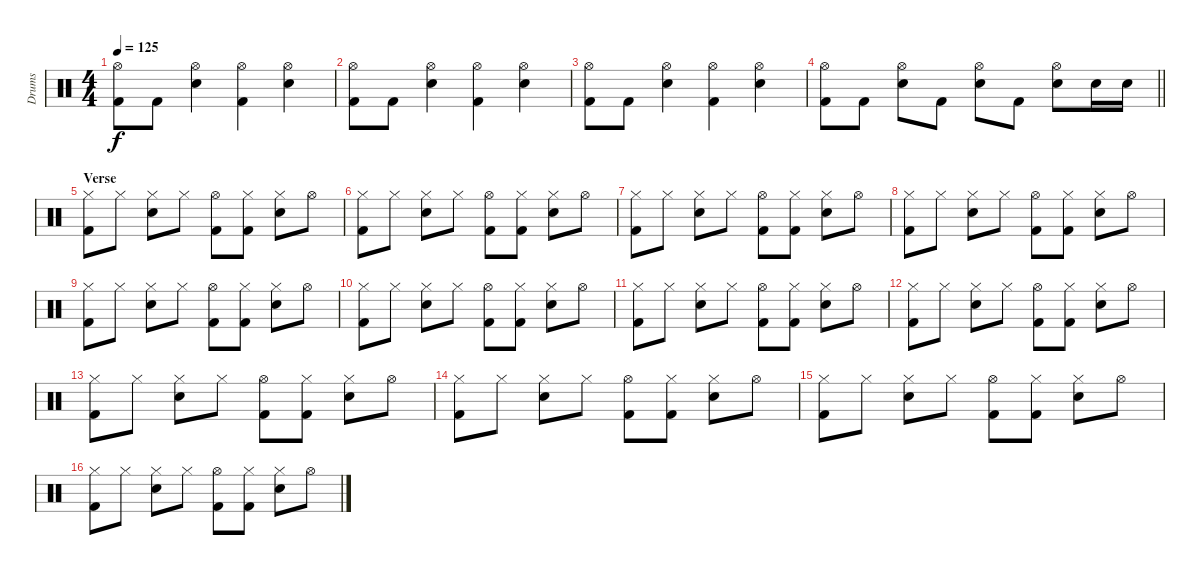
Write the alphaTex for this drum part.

\track ("Drums" "Drums") {instrument percussion}
\staff {score}
\articulation defaults
\ts (4 4)
\tempo 125
\clef neutral
\ks c
("Hi-Hat (open)" "Kick (hit) 2").8{dy f} "Kick (hit) 2".8 ("Hi-Hat (open)" "Electric Snare (hit)").4 ("Hi-Hat (open)" "Kick (hit) 2").4 ("Hi-Hat (open)" "Electric Snare (hit)").4 |
("Hi-Hat (open)" "Kick (hit) 2").8 "Kick (hit) 2".8 ("Hi-Hat (open)" "Electric Snare (hit)").4 ("Hi-Hat (open)" "Kick (hit) 2").4 ("Hi-Hat (open)" "Electric Snare (hit)").4 |
("Hi-Hat (open)" "Kick (hit) 2").8 "Kick (hit) 2".8 ("Hi-Hat (open)" "Electric Snare (hit)").4 ("Hi-Hat (open)" "Kick (hit) 2").4 ("Hi-Hat (open)" "Electric Snare (hit)").4 |
\barLineRight lightlight
("Hi-Hat (open)" "Kick (hit) 2").8 "Kick (hit) 2".8 ("Hi-Hat (open)" "Electric Snare (hit)").8 "Kick (hit) 2".8 ("Hi-Hat (open)" "Electric Snare (hit)").8 "Kick (hit) 2".8 ("Hi-Hat (open)" "Electric Snare (hit)").8 "Electric Snare (hit)".16 "Electric Snare (hit)".16 |
\section ("" "Verse")
("Hi-Hat (closed)" "Kick (hit) 2").8 "Hi-Hat (closed)".8 ("Hi-Hat (closed)" "Electric Snare (hit)").8 "Hi-Hat (closed)".8 ("Hi-Hat (open)" "Kick (hit) 2").8 ("Hi-Hat (closed)" "Kick (hit) 2").8 ("Hi-Hat (closed)" "Electric Snare (hit)").8 "Hi-Hat (open)".8 |
("Hi-Hat (closed)" "Kick (hit) 2").8 "Hi-Hat (closed)".8 ("Hi-Hat (closed)" "Electric Snare (hit)").8 "Hi-Hat (closed)".8 ("Hi-Hat (open)" "Kick (hit) 2").8 ("Hi-Hat (closed)" "Kick (hit) 2").8 ("Hi-Hat (closed)" "Electric Snare (hit)").8 "Hi-Hat (open)".8 |
("Hi-Hat (closed)" "Kick (hit) 2").8 "Hi-Hat (closed)".8 ("Hi-Hat (closed)" "Electric Snare (hit)").8 "Hi-Hat (closed)".8 ("Hi-Hat (open)" "Kick (hit) 2").8 ("Hi-Hat (closed)" "Kick (hit) 2").8 ("Hi-Hat (closed)" "Electric Snare (hit)").8 "Hi-Hat (open)".8 |
("Hi-Hat (closed)" "Kick (hit) 2").8 "Hi-Hat (closed)".8 ("Hi-Hat (closed)" "Electric Snare (hit)").8 "Hi-Hat (closed)".8 ("Hi-Hat (open)" "Kick (hit) 2").8 ("Hi-Hat (closed)" "Kick (hit) 2").8 ("Hi-Hat (closed)" "Electric Snare (hit)").8 "Hi-Hat (open)".8 |
("Hi-Hat (closed)" "Kick (hit) 2").8 "Hi-Hat (closed)".8 ("Hi-Hat (closed)" "Electric Snare (hit)").8 "Hi-Hat (closed)".8 ("Hi-Hat (open)" "Kick (hit) 2").8 ("Hi-Hat (closed)" "Kick (hit) 2").8 ("Hi-Hat (closed)" "Electric Snare (hit)").8 "Hi-Hat (open)".8 |
("Hi-Hat (closed)" "Kick (hit) 2").8 "Hi-Hat (closed)".8 ("Hi-Hat (closed)" "Electric Snare (hit)").8 "Hi-Hat (closed)".8 ("Hi-Hat (open)" "Kick (hit) 2").8 ("Hi-Hat (closed)" "Kick (hit) 2").8 ("Hi-Hat (closed)" "Electric Snare (hit)").8 "Hi-Hat (open)".8 |
("Hi-Hat (closed)" "Kick (hit) 2").8 "Hi-Hat (closed)".8 ("Hi-Hat (closed)" "Electric Snare (hit)").8 "Hi-Hat (closed)".8 ("Hi-Hat (open)" "Kick (hit) 2").8 ("Hi-Hat (closed)" "Kick (hit) 2").8 ("Hi-Hat (closed)" "Electric Snare (hit)").8 "Hi-Hat (open)".8 |
("Hi-Hat (closed)" "Kick (hit) 2").8 "Hi-Hat (closed)".8 ("Hi-Hat (closed)" "Electric Snare (hit)").8 "Hi-Hat (closed)".8 ("Hi-Hat (open)" "Kick (hit) 2").8 ("Hi-Hat (closed)" "Kick (hit) 2").8 ("Hi-Hat (closed)" "Electric Snare (hit)").8 "Hi-Hat (open)".8 |
("Hi-Hat (closed)" "Kick (hit) 2").8 "Hi-Hat (closed)".8 ("Hi-Hat (closed)" "Electric Snare (hit)").8 "Hi-Hat (closed)".8 ("Hi-Hat (open)" "Kick (hit) 2").8 ("Hi-Hat (closed)" "Kick (hit) 2").8 ("Hi-Hat (closed)" "Electric Snare (hit)").8 "Hi-Hat (open)".8 |
("Hi-Hat (closed)" "Kick (hit) 2").8 "Hi-Hat (closed)".8 ("Hi-Hat (closed)" "Electric Snare (hit)").8 "Hi-Hat (closed)".8 ("Hi-Hat (open)" "Kick (hit) 2").8 ("Hi-Hat (closed)" "Kick (hit) 2").8 ("Hi-Hat (closed)" "Electric Snare (hit)").8 "Hi-Hat (open)".8 |
("Hi-Hat (closed)" "Kick (hit) 2").8 "Hi-Hat (closed)".8 ("Hi-Hat (closed)" "Electric Snare (hit)").8 "Hi-Hat (closed)".8 ("Hi-Hat (open)" "Kick (hit) 2").8 ("Hi-Hat (closed)" "Kick (hit) 2").8 ("Hi-Hat (closed)" "Electric Snare (hit)").8 "Hi-Hat (open)".8 |
("Hi-Hat (closed)" "Kick (hit) 2").8 "Hi-Hat (closed)".8 ("Hi-Hat (closed)" "Electric Snare (hit)").8 "Hi-Hat (closed)".8 ("Hi-Hat (open)" "Kick (hit) 2").8 ("Hi-Hat (closed)" "Kick (hit) 2").8 ("Hi-Hat (closed)" "Electric Snare (hit)").8 "Hi-Hat (open)".8
